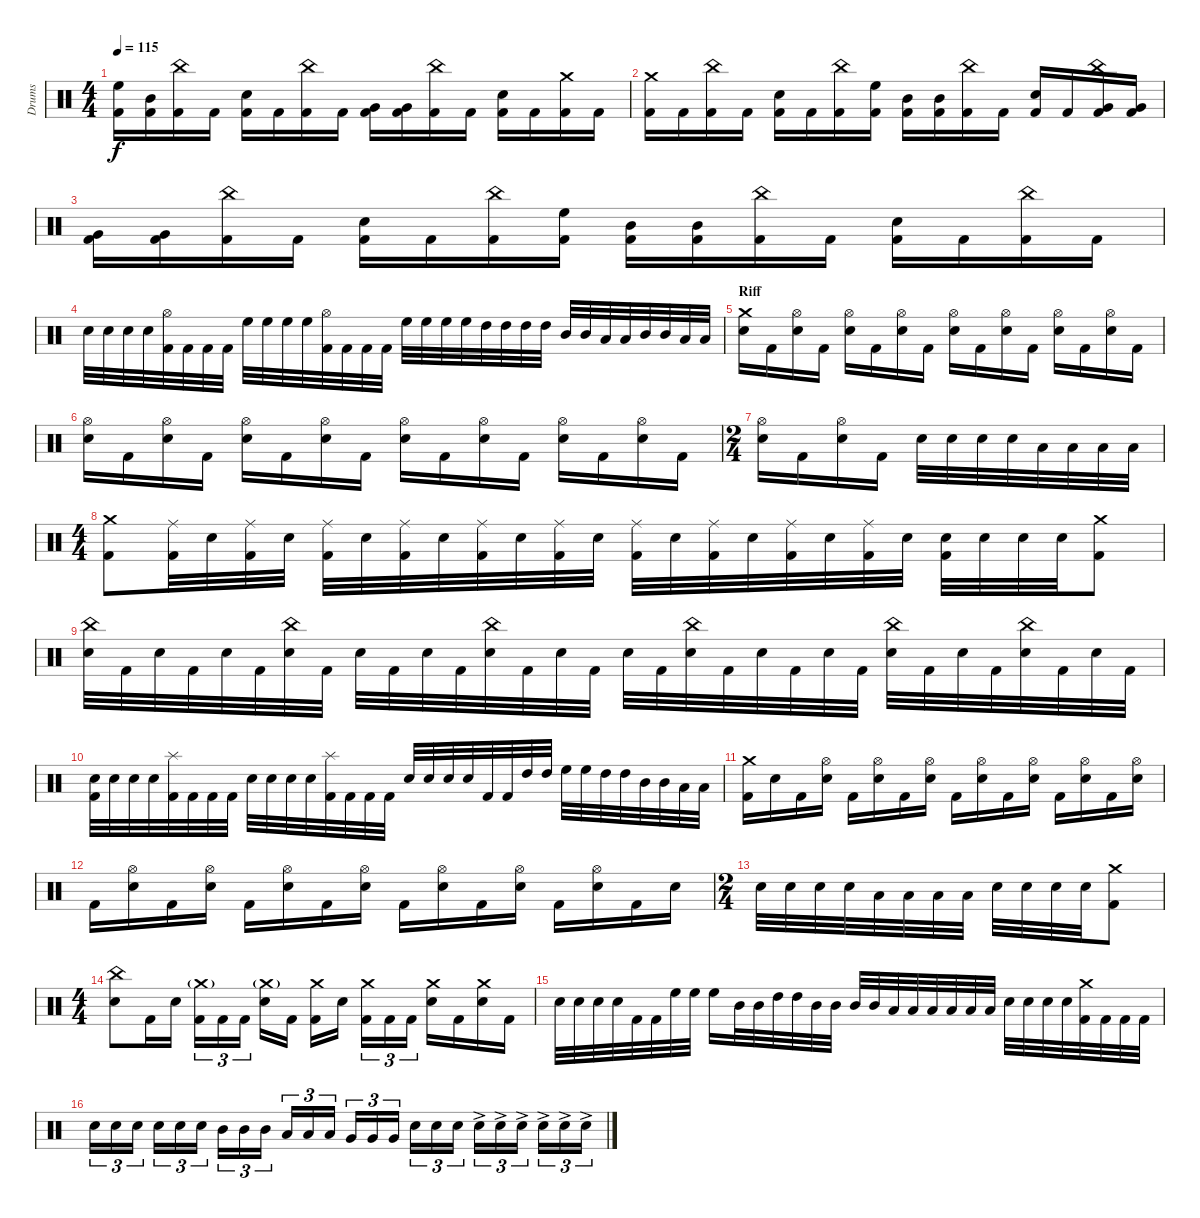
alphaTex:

\track ("Drums" "Drums") {instrument percussion}
\staff {score}
\articulation defaults
\ts (4 4)
\tempo 115
\clef neutral
\ks c
("High Floor Tom (hit)" "Kick (hit) 2").16{dy f} ("Mid Tom (hit)" "Kick (hit) 2").16 ("China (hit)" "Kick (hit) 2").16 "Kick (hit) 2".16 ("Snare (hit) 2" "Kick (hit) 2").16 "Kick (hit) 2".16 ("China (hit)" "Kick (hit) 2").16 "Kick (hit) 2".16 ("Very Low Tom (hit)" "Kick (hit) 2").16 ("Very Low Tom (hit)" "Kick (hit) 2").16 ("China (hit)" "Kick (hit) 2").16 "Kick (hit) 2".16 ("Snare (hit) 2" "Kick (hit) 2").16 "Kick (hit) 2".16 ("Crash medium (hit)" "Kick (hit) 2").16 "Kick (hit) 2".16 |
("Crash medium (hit)" "Kick (hit) 2").16 "Kick (hit) 2".16 ("China (hit)" "Kick (hit) 2").16 "Kick (hit) 2".16 ("Snare (hit) 2" "Kick (hit) 2").16 "Kick (hit) 2".16 ("China (hit)" "Kick (hit) 2").16 ("High Floor Tom (hit)" "Kick (hit) 2").16 ("Mid Tom (hit)" "Kick (hit) 2").16 ("Mid Tom (hit)" "Kick (hit) 2").16 ("China (hit)" "Kick (hit) 2").16 "Kick (hit) 2".16 ("Snare (hit) 2" "Kick (hit) 2").16 "Kick (hit) 2".16 ("China (hit)" "Very Low Tom (hit)" "Kick (hit) 2").16 ("Very Low Tom (hit)" "Kick (hit) 2").16 |
("Very Low Tom (hit)" "Kick (hit) 2").16 ("Very Low Tom (hit)" "Kick (hit) 2").16 ("China (hit)" "Kick (hit) 2").16 "Kick (hit) 2".16 ("Snare (hit) 2" "Kick (hit) 2").16 "Kick (hit) 2".16 ("China (hit)" "Kick (hit) 2").16 ("High Floor Tom (hit)" "Kick (hit) 2").16 ("Mid Tom (hit)" "Kick (hit) 2").16 ("Mid Tom (hit)" "Kick (hit) 2").16 ("China (hit)" "Kick (hit) 2").16 "Kick (hit) 2".16 ("Snare (hit) 2" "Kick (hit) 2").16 "Kick (hit) 2".16 ("China (hit)" "Kick (hit) 2").16 "Kick (hit) 2".16 |
"Snare (hit) 2".32 "Snare (hit) 2".32 "Snare (hit) 2".32 "Snare (hit) 2".32 ("Hi-Hat (open)" "Kick (hit) 2").32 "Kick (hit) 2".32 "Kick (hit) 2".32 "Kick (hit) 2".32 "High Floor Tom (hit)".32 "High Floor Tom (hit)".32 "High Floor Tom (hit)".32 "High Floor Tom (hit)".32 ("Hi-Hat (open)" "Kick (hit) 2").32 "Kick (hit) 2".32 "Kick (hit) 2".32 "Kick (hit) 2".32 "High Floor Tom (hit)".32 "High Floor Tom (hit)".32 "High Floor Tom (hit)".32 "High Floor Tom (hit)".32 "High Tom (hit)".32 "High Tom (hit)".32 "High Tom (hit)".32 "High Tom (hit)".32 "Mid Tom (hit)".32 "Mid Tom (hit)".32 "Low Tom (hit)".32 "Low Tom (hit)".32 "Mid Tom (hit)".32 "Mid Tom (hit)".32 "Low Tom (hit)".32 "Low Tom (hit)".32 |
\section ("" "Riff")
("Crash medium (hit)" "Snare (hit) 2").16 "Kick (hit) 2".16 ("Hi-Hat (open)" "Snare (hit) 2").16 "Kick (hit) 2".16 ("Hi-Hat (open)" "Snare (hit) 2").16 "Kick (hit) 2".16 ("Hi-Hat (open)" "Snare (hit) 2").16 "Kick (hit) 2".16 ("Hi-Hat (open)" "Snare (hit) 2").16 "Kick (hit) 2".16 ("Hi-Hat (open)" "Snare (hit) 2").16 "Kick (hit) 2".16 ("Hi-Hat (open)" "Snare (hit) 2").16 "Kick (hit) 2".16 ("Hi-Hat (open)" "Snare (hit) 2").16 "Kick (hit) 2".16 |
("Hi-Hat (open)" "Snare (hit) 2").16 "Kick (hit) 2".16 ("Hi-Hat (open)" "Snare (hit) 2").16 "Kick (hit) 2".16 ("Hi-Hat (open)" "Snare (hit) 2").16 "Kick (hit) 2".16 ("Hi-Hat (open)" "Snare (hit) 2").16 "Kick (hit) 2".16 ("Hi-Hat (open)" "Snare (hit) 2").16 "Kick (hit) 2".16 ("Hi-Hat (open)" "Snare (hit) 2").16 "Kick (hit) 2".16 ("Hi-Hat (open)" "Snare (hit) 2").16 "Kick (hit) 2".16 ("Hi-Hat (open)" "Snare (hit) 2").16 "Kick (hit) 2".16 |
\ts (2 4)
("Hi-Hat (open)" "Snare (hit) 2").16 "Kick (hit) 2".16 ("Hi-Hat (open)" "Snare (hit) 2").16 "Kick (hit) 2".16 "Snare (hit) 2".32 "Snare (hit) 2".32 "Snare (hit) 2".32 "Snare (hit) 2".32 "Low Tom (hit)".32 "Low Tom (hit)".32 "Low Tom (hit)".32 "Low Tom (hit)".32 |
\ts (4 4)
("Crash medium (hit)" "Kick (hit) 2").8 ("Ride (middle)" "Kick (hit) 2").32 "Snare (hit) 2".32 ("Ride (middle)" "Kick (hit) 2").32 "Snare (hit) 2".32 ("Ride (middle)" "Kick (hit) 2").32 "Snare (hit) 2".32 ("Ride (middle)" "Kick (hit) 2").32 "Snare (hit) 2".32 ("Ride (middle)" "Kick (hit) 2").32 "Snare (hit) 2".32 ("Ride (middle)" "Kick (hit) 2").32 "Snare (hit) 2".32 ("Ride (middle)" "Kick (hit) 2").32 "Snare (hit) 2".32 ("Ride (middle)" "Kick (hit) 2").32 "Snare (hit) 2".32 ("Ride (middle)" "Kick (hit) 2").32 "Snare (hit) 2".32 ("Ride (middle)" "Kick (hit) 2").32 "Snare (hit) 2".32 ("Snare (hit) 2" "Kick (hit) 2").32 "Snare (hit) 2".32 "Snare (hit) 2".32 "Snare (hit) 2".32 ("Crash medium (hit)" "Kick (hit) 2").8 |
("China (hit)" "Snare (hit) 2").32 "Kick (hit) 2".32 "Snare (hit) 2".32 "Kick (hit) 2".32 "Snare (hit) 2".32 "Kick (hit) 2".32 ("China (hit)" "Snare (hit) 2").32 "Kick (hit) 2".32 "Snare (hit) 2".32 "Kick (hit) 2".32 "Snare (hit) 2".32 "Kick (hit) 2".32 ("China (hit)" "Snare (hit) 2").32 "Kick (hit) 2".32 "Snare (hit) 2".32 "Kick (hit) 2".32 "Snare (hit) 2".32 "Kick (hit) 2".32 ("China (hit)" "Snare (hit) 2").32 "Kick (hit) 2".32 "Snare (hit) 2".32 "Kick (hit) 2".32 "Snare (hit) 2".32 "Kick (hit) 2".32 ("China (hit)" "Snare (hit) 2").32 "Kick (hit) 2".32 "Snare (hit) 2".32 "Kick (hit) 2".32 ("China (hit)" "Snare (hit) 2").32 "Kick (hit) 2".32 "Snare (hit) 2".32 "Kick (hit) 2".32 |
("Snare (hit) 2" "Kick (hit) 2").32 "Snare (hit) 2".32 "Snare (hit) 2".32 "Snare (hit) 2".32 ("Splash (hit)" "Kick (hit) 2").32 "Kick (hit) 2".32 "Kick (hit) 2".32 "Kick (hit) 2".32 "Snare (hit) 2".32 "Snare (hit) 2".32 "Snare (hit) 2".32 "Snare (hit) 2".32 ("Splash (hit)" "Kick (hit) 2").32 "Kick (hit) 2".32 "Kick (hit) 2".32 "Kick (hit) 2".32 "Snare (hit) 2".32 "Snare (hit) 2".32 "Snare (hit) 2".32 "Snare (hit) 2".32 "Kick (hit) 2".32 "Kick (hit) 2".32 "High Tom (hit)".32 "High Tom (hit)".32 "High Floor Tom (hit)".32 "High Floor Tom (hit)".32 "High Tom (hit)".32 "High Tom (hit)".32 "Mid Tom (hit)".32 "Mid Tom (hit)".32 "Low Tom (hit)".32 "Low Tom (hit)".32 |
("Crash medium (hit)" "Kick (hit) 2").16 "Snare (hit) 2".16 "Kick (hit) 2".16 ("Hi-Hat (open)" "Snare (hit) 2").16 "Kick (hit) 2".16 ("Hi-Hat (open)" "Snare (hit) 2").16 "Kick (hit) 2".16 ("Hi-Hat (open)" "Snare (hit) 2").16 "Kick (hit) 2".16 ("Hi-Hat (open)" "Snare (hit) 2").16 "Kick (hit) 2".16 ("Hi-Hat (open)" "Snare (hit) 2").16 "Kick (hit) 2".16 ("Hi-Hat (open)" "Snare (hit) 2").16 "Kick (hit) 2".16 ("Hi-Hat (open)" "Snare (hit) 2").16 |
"Kick (hit) 2".16 ("Hi-Hat (open)" "Snare (hit) 2").16 "Kick (hit) 2".16 ("Hi-Hat (open)" "Snare (hit) 2").16 "Kick (hit) 2".16 ("Hi-Hat (open)" "Snare (hit) 2").16 "Kick (hit) 2".16 ("Hi-Hat (open)" "Snare (hit) 2").16 "Kick (hit) 2".16 ("Hi-Hat (open)" "Snare (hit) 2").16 "Kick (hit) 2".16 ("Hi-Hat (open)" "Snare (hit) 2").16 "Kick (hit) 2".16 ("Hi-Hat (open)" "Snare (hit) 2").16 "Kick (hit) 2".16 "Snare (hit) 2".16 |
\ts (2 4)
"Snare (hit) 2".32 "Snare (hit) 2".32 "Snare (hit) 2".32 "Snare (hit) 2".32 "Low Tom (hit)".32 "Low Tom (hit)".32 "Low Tom (hit)".32 "Low Tom (hit)".32 "Snare (hit) 2".32 "Snare (hit) 2".32 "Snare (hit) 2".32 "Snare (hit) 2".32 ("Crash medium (hit)" "Kick (hit) 2").8 |
\ts (4 4)
("China (hit)" "Snare (hit) 2").8 "Kick (hit) 2".16 "Snare (hit) 2".16 ("Crash medium (hit)"{g} "Kick (hit) 2").16{tu (3 2)} "Kick (hit) 2".16{tu (3 2)} "Kick (hit) 2".16{tu (3 2)} ("Crash medium (hit)"{g} "Snare (hit) 2").16 "Kick (hit) 2".16 ("Crash medium (hit)" "Kick (hit) 2").16 "Snare (hit) 2".16 ("Crash medium (hit)" "Kick (hit) 2").16{tu (3 2)} "Kick (hit) 2".16{tu (3 2)} "Kick (hit) 2".16{tu (3 2)} ("Crash medium (hit)" "Snare (hit) 2").16 "Kick (hit) 2".16 ("Crash medium (hit)" "Snare (hit) 2").16 "Kick (hit) 2".16 |
"Snare (hit) 2".32 "Snare (hit) 2".32 "Snare (hit) 2".32 "Snare (hit) 2".32 "Kick (hit) 2".32 "Kick (hit) 2".32 "High Floor Tom (hit)".32 "High Floor Tom (hit)".32 "High Floor Tom (hit)".16 "Mid Tom (hit)".32 "Mid Tom (hit)".32 "High Tom (hit)".32 "High Tom (hit)".32 "Mid Tom (hit)".32 "Mid Tom (hit)".32 "Mid Tom (hit)".32 "Mid Tom (hit)".32 "Low Tom (hit)".32 "Low Tom (hit)".32 "Low Tom (hit)".32 "Low Tom (hit)".32 "Low Tom (hit)".32 "Low Tom (hit)".32 "Snare (hit) 2".32 "Snare (hit) 2".32 "Snare (hit) 2".32 "Snare (hit) 2".32 ("Crash medium (hit)" "Kick (hit) 2").32 "Kick (hit) 2".32 "Kick (hit) 2".32 "Kick (hit) 2".32 |
"Snare (hit) 2".16{tu (3 2)} "Snare (hit) 2".16{tu (3 2)} "Snare (hit) 2".16{tu (3 2)} "Snare (hit) 2".16{tu (3 2)} "Snare (hit) 2".16{tu (3 2)} "Snare (hit) 2".16{tu (3 2)} "Mid Tom (hit)".16{tu (3 2)} "Mid Tom (hit)".16{tu (3 2)} "Mid Tom (hit)".16{tu (3 2)} "Low Tom (hit)".16{tu (3 2)} "Low Tom (hit)".16{tu (3 2)} "Low Tom (hit)".16{tu (3 2)} "Very Low Tom (hit)".16{tu (3 2)} "Very Low Tom (hit)".16{tu (3 2)} "Very Low Tom (hit)".16{tu (3 2)} "Snare (hit) 2".16{tu (3 2)} "Snare (hit) 2".16{tu (3 2)} "Snare (hit) 2".16{tu (3 2)} "Snare (hit) 2"{ac}.16{tu (3 2)} "Snare (hit) 2"{ac}.16{tu (3 2)} "Snare (hit) 2"{ac}.16{tu (3 2)} "Snare (hit) 2"{ac}.16{tu (3 2)} "Snare (hit) 2"{ac}.16{tu (3 2)} "Snare (hit) 2"{ac}.16{tu (3 2)}
